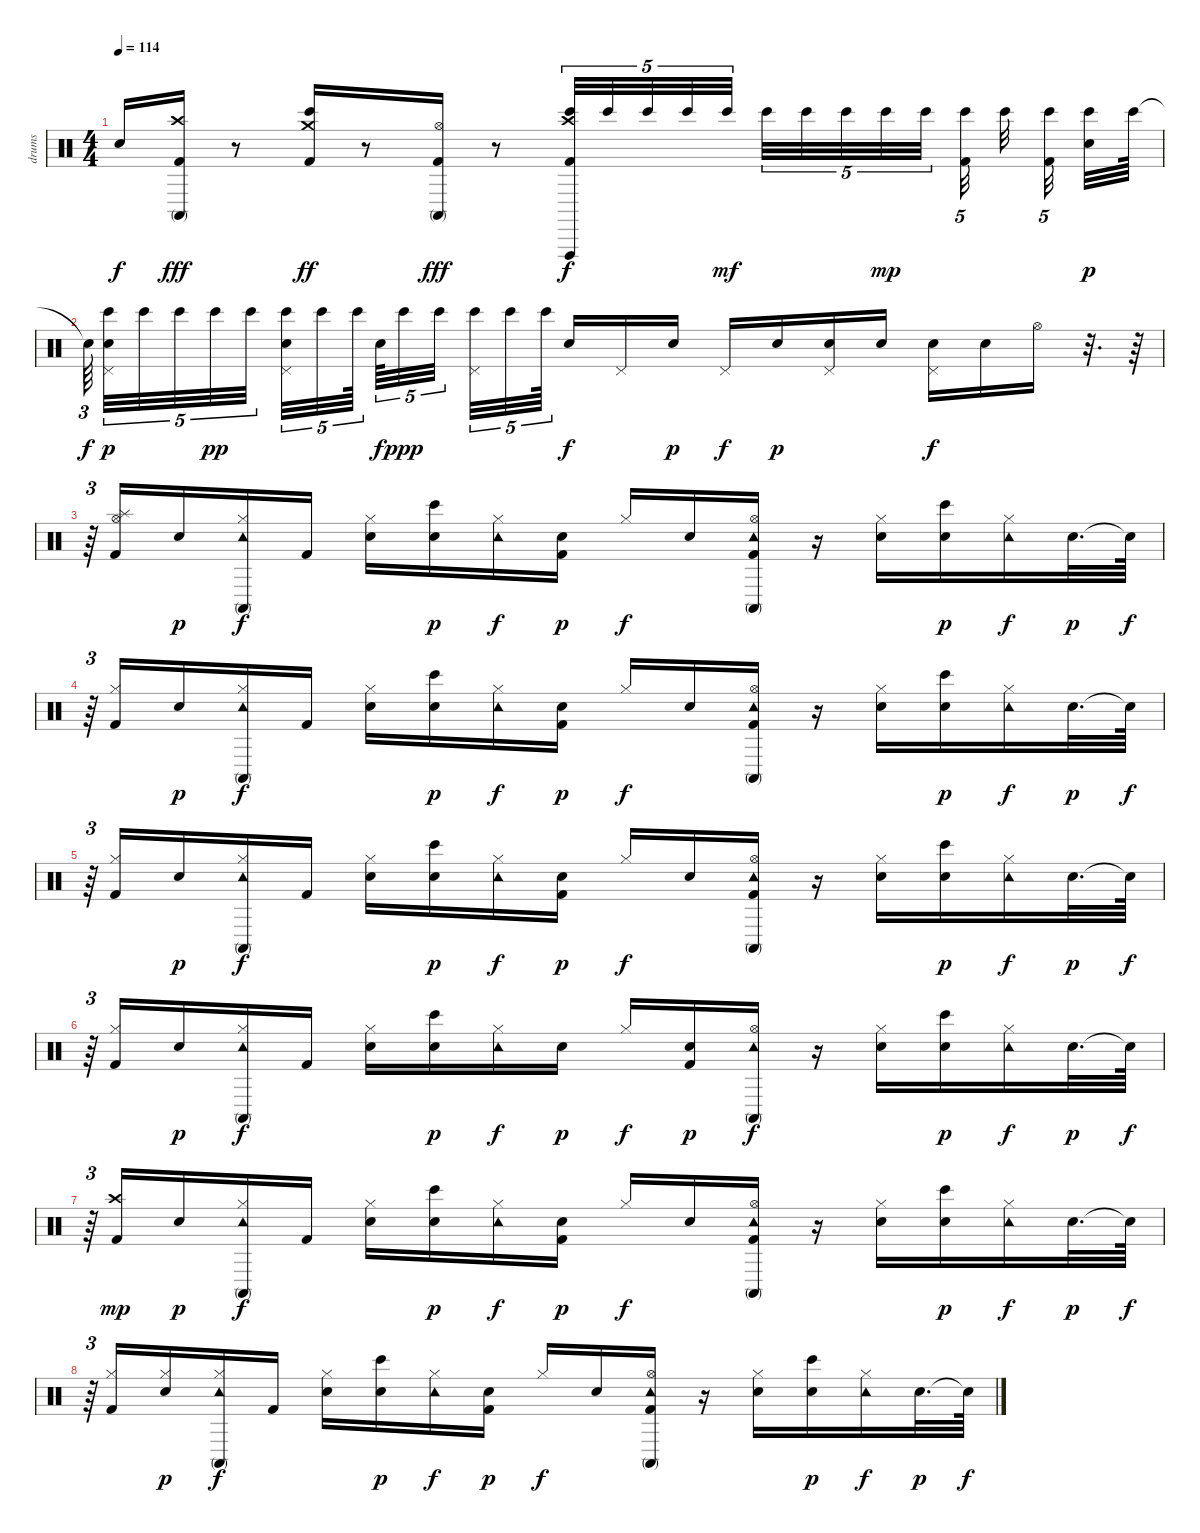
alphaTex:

\track ("drums" "drums") {instrument percussion}
\staff {score}
\articulation defaults
\ts (4 4)
\tempo 114
\clef neutral
\ks c "Snare (hit)"{t}.16{dy f}
("Conga high (mute)" "Crash high (hit)" "Kick (hit) 2").16{dy fff} r.8 ("Bongo High (hit)" "Kick (hit) 2" "Crash medium (hit)").16{dy ff} r.8 ("Conga high (mute)" "Hi-Hat (open)" "Kick (hit) 2").16{dy fff} r.8 ("Vibraslap (hit)" "Crash high (hit)" "Kick (hit) 2" "Bongo High (hit)").32{tu (5 4) dy f} "Bongo High (hit)".32{tu (5 4)} "Bongo High (hit)".32{tu (5 4)} "Bongo High (hit)".32{tu (5 4)} "Bongo High (hit)".32{tu (5 4) dy mf} "Bongo High (hit)".32{tu (5 4)} "Bongo High (hit)".32{tu (5 4)} "Bongo High (hit)".32{tu (5 4)} "Bongo High (hit)".32{tu (5 4) dy mp} "Bongo High (hit)".32{tu (5 4)} ("Kick (hit) 2" "Bongo High (hit)").32{tu (5 4)} "Bongo High (hit)".32 ("Kick (hit) 2" "Bongo High (hit)").32{tu (5 4)} ("Bongo High (hit)" "Electric Snare (hit)").32{dy p} "Bongo High (hit)".64 |
"Snare (hit)"{t}.64{tu (3 2) dy f} ("Pedal Hi-Hat (hit)" "Electric Snare (hit)" "Bongo High (hit)").32{tu (5 4) dy p} "Bongo High (hit)".32{tu (5 4)} "Bongo High (hit)".32{tu (5 4)} "Bongo High (hit)".32{tu (5 4) dy pp} "Bongo High (hit)".32{tu (5 4)} ("Pedal Hi-Hat (hit)" "Electric Snare (hit)" "Bongo High (hit)").32{tu (5 4)} "Bongo High (hit)".32{tu (5 4)} "Bongo High (hit)".64{tu (5 4)} "Electric Snare (hit)".64{tu (5 4) dy f} "Bongo High (hit)".32{tu (5 4) dy ppp} "Bongo High (hit)".32{tu (5 4)} ("Pedal Hi-Hat (hit)" "Bongo High (hit)").32{tu (5 4)} "Bongo High (hit)".32{tu (5 4)} "Bongo High (hit)".64{tu (5 4)} "Electric Snare (hit)".16{dy f} "Pedal Hi-Hat (hit)".16 "Electric Snare (hit)".16{dy p} "Pedal Hi-Hat (hit)".16{dy f} "Electric Snare (hit)".16{dy p} ("Pedal Hi-Hat (hit)" "Electric Snare (hit)").16 "Electric Snare (hit)".16 ("Pedal Hi-Hat (hit)" "Electric Snare (hit)").16{dy f} "Electric Snare (hit)".16 "Hi-Hat (open)".16 r.32{d} r.64 |
r.64{tu (3 2)} ("Hi-Hat (open)" "Splash (hit)" "Kick (hit) 2").16 "Electric Snare (hit)".16{dy p} ("Hi-Hat (closed)" "Tambourine (hit)" "Conga high (mute)").16{dy f} "Kick (hit) 2".16 ("Electric Snare (hit)" "Hi-Hat (closed)").16 ("Electric Snare (hit)" "Bongo High (hit)").16{dy p} ("Hi-Hat (closed)" "Tambourine (hit)").16{dy f} ("Electric Snare (hit)" "Kick (hit) 2").16{dy p} "Hi-Hat (closed)".16{dy f} "Electric Snare (hit)".16 ("Kick (hit) 2" "Hi-Hat (open)" "Tambourine (hit)" "Conga high (mute)").16 r.16 ("Electric Snare (hit)" "Hi-Hat (closed)").16 ("Electric Snare (hit)" "Bongo High (hit)").16{dy p} ("Hi-Hat (closed)" "Tambourine (hit)").16{dy f} "Electric Snare (hit)".32{d dy p} "Snare (hit)"{t}.64{dy f} |
r.64{tu (3 2)} ("Hi-Hat (closed)" "Kick (hit) 2").16 "Electric Snare (hit)".16{dy p} ("Hi-Hat (closed)" "Tambourine (hit)" "Conga high (mute)").16{dy f} "Kick (hit) 2".16 ("Electric Snare (hit)" "Hi-Hat (closed)").16 ("Electric Snare (hit)" "Bongo High (hit)").16{dy p} ("Hi-Hat (closed)" "Tambourine (hit)").16{dy f} ("Electric Snare (hit)" "Kick (hit) 2").16{dy p} "Hi-Hat (closed)".16{dy f} "Electric Snare (hit)".16 ("Kick (hit) 2" "Hi-Hat (open)" "Tambourine (hit)" "Conga high (mute)").16 r.16 ("Electric Snare (hit)" "Hi-Hat (closed)").16 ("Electric Snare (hit)" "Bongo High (hit)").16{dy p} ("Hi-Hat (closed)" "Tambourine (hit)").16{dy f} "Electric Snare (hit)".32{d dy p} "Snare (hit)"{t}.64{dy f} |
r.64{tu (3 2)} ("Hi-Hat (closed)" "Kick (hit) 2").16 "Electric Snare (hit)".16{dy p} ("Hi-Hat (closed)" "Tambourine (hit)" "Conga high (mute)").16{dy f} "Kick (hit) 2".16 ("Electric Snare (hit)" "Hi-Hat (closed)").16 ("Electric Snare (hit)" "Bongo High (hit)").16{dy p} ("Hi-Hat (closed)" "Tambourine (hit)").16{dy f} ("Electric Snare (hit)" "Kick (hit) 2").16{dy p} "Hi-Hat (closed)".16{dy f} "Electric Snare (hit)".16 ("Kick (hit) 2" "Hi-Hat (open)" "Tambourine (hit)" "Conga high (mute)").16 r.16 ("Electric Snare (hit)" "Hi-Hat (closed)").16 ("Electric Snare (hit)" "Bongo High (hit)").16{dy p} ("Hi-Hat (closed)" "Tambourine (hit)").16{dy f} "Electric Snare (hit)".32{d dy p} "Snare (hit)"{t}.64{dy f} |
r.64{tu (3 2)} ("Hi-Hat (closed)" "Kick (hit) 2").16 "Electric Snare (hit)".16{dy p} ("Hi-Hat (closed)" "Tambourine (hit)" "Conga high (mute)").16{dy f} "Kick (hit) 2".16 ("Hi-Hat (closed)" "Electric Snare (hit)").16 ("Electric Snare (hit)" "Bongo High (hit)").16{dy p} ("Hi-Hat (closed)" "Tambourine (hit)").16{dy f} "Electric Snare (hit)".16{dy p} "Hi-Hat (closed)".16{dy f} ("Electric Snare (hit)" "Kick (hit) 2").16{dy p} ("Hi-Hat (open)" "Tambourine (hit)" "Conga high (mute)").16{dy f} r.16 ("Electric Snare (hit)" "Hi-Hat (closed)").16 ("Electric Snare (hit)" "Bongo High (hit)").16{dy p} ("Hi-Hat (closed)" "Tambourine (hit)").16{dy f} "Electric Snare (hit)".32{d dy p} "Snare (hit)"{t}.64{dy f} |
r.64{tu (3 2)} ("Crash high (hit)" "Kick (hit) 2").16{dy mp} "Electric Snare (hit)".16{dy p} ("Hi-Hat (closed)" "Tambourine (hit)" "Conga high (mute)").16{dy f} "Kick (hit) 2".16 ("Electric Snare (hit)" "Hi-Hat (closed)").16 ("Electric Snare (hit)" "Bongo High (hit)").16{dy p} ("Hi-Hat (closed)" "Tambourine (hit)").16{dy f} ("Electric Snare (hit)" "Kick (hit) 2").16{dy p} "Hi-Hat (closed)".16{dy f} "Electric Snare (hit)".16 ("Kick (hit) 2" "Hi-Hat (open)" "Tambourine (hit)" "Conga high (mute)").16 r.16 ("Electric Snare (hit)" "Hi-Hat (closed)").16 ("Electric Snare (hit)" "Bongo High (hit)").16{dy p} ("Hi-Hat (closed)" "Tambourine (hit)").16{dy f} "Electric Snare (hit)".32{d dy p} "Snare (hit)"{t}.64{dy f} |
r.64{tu (3 2)} ("Kick (hit) 2" "Hi-Hat (closed)").16 ("Electric Snare (hit)" "Hi-Hat (closed)").16{dy p} ("Hi-Hat (closed)" "Tambourine (hit)" "Conga high (mute)").16{dy f} "Kick (hit) 2".16 ("Hi-Hat (closed)" "Electric Snare (hit)").16 ("Electric Snare (hit)" "Bongo High (hit)").16{dy p} ("Hi-Hat (closed)" "Tambourine (hit)").16{dy f} ("Electric Snare (hit)" "Kick (hit) 2").16{dy p} "Hi-Hat (closed)".16{dy f} "Electric Snare (hit)".16 ("Hi-Hat (open)" "Kick (hit) 2" "Tambourine (hit)" "Conga high (mute)").16 r.16 ("Electric Snare (hit)" "Hi-Hat (closed)").16 ("Electric Snare (hit)" "Bongo High (hit)").16{dy p} ("Hi-Hat (closed)" "Tambourine (hit)").16{dy f} "Electric Snare (hit)".32{d dy p} "Snare (hit)"{t}.64{dy f}
